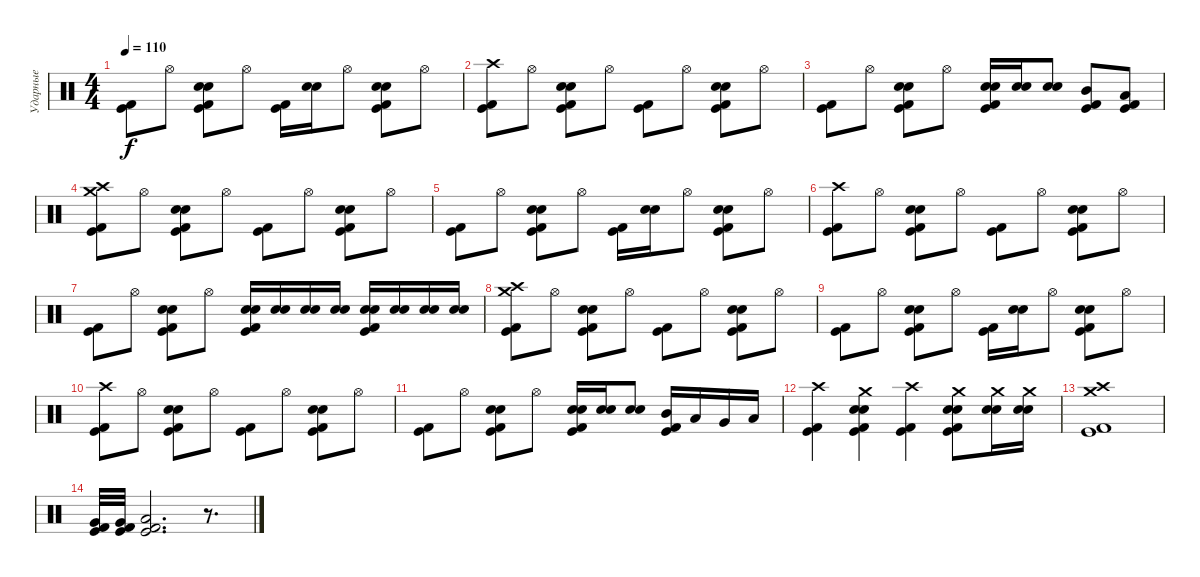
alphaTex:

\track ("Ударные" "Ударные") {instrument percussion}
\staff {score}
\articulation defaults
\ts (4 4)
\tempo 110
\clef neutral
\ks c
("Kick (hit) 2" "Kick (hit)").8{dy f} "Hi-Hat (open)".8 ("Snare (hit) 2" "Electric Snare (hit)" "Kick (hit)" "Kick (hit) 2").8 "Hi-Hat (open)".8 ("Kick (hit) 2" "Kick (hit)").16 ("Snare (hit) 2" "Electric Snare (hit)").16 "Hi-Hat (open)".8 ("Snare (hit) 2" "Electric Snare (hit)" "Kick (hit)" "Kick (hit) 2").8 "Hi-Hat (open)".8 |
("Crash high (hit)" "Kick (hit) 2" "Kick (hit)").8 "Hi-Hat (open)".8 ("Snare (hit) 2" "Electric Snare (hit)" "Kick (hit)" "Kick (hit) 2").8 "Hi-Hat (open)".8 ("Kick (hit) 2" "Kick (hit)").8 "Hi-Hat (open)".8 ("Snare (hit) 2" "Electric Snare (hit)" "Kick (hit)" "Kick (hit) 2").8 "Hi-Hat (open)".8 |
("Kick (hit) 2" "Kick (hit)").8 "Hi-Hat (open)".8 ("Snare (hit) 2" "Electric Snare (hit)" "Kick (hit)" "Kick (hit) 2").8 "Hi-Hat (open)".8 ("Snare (hit) 2" "Electric Snare (hit)" "Kick (hit)" "Kick (hit) 2").16 ("Snare (hit) 2" "Electric Snare (hit)").16 ("Snare (hit) 2" "Electric Snare (hit)").8 ("Mid Tom (hit)" "Kick (hit)" "Kick (hit) 2").8 ("Low Tom (hit)" "Kick (hit)" "Kick (hit) 2").8 |
("Crash high (hit)" "Kick (hit) 2" "Crash medium (hit)" "Kick (hit)").8 "Hi-Hat (open)".8 ("Snare (hit) 2" "Electric Snare (hit)" "Kick (hit)" "Kick (hit) 2").8 "Hi-Hat (open)".8 ("Kick (hit) 2" "Kick (hit)").8 "Hi-Hat (open)".8 ("Snare (hit) 2" "Electric Snare (hit)" "Kick (hit)" "Kick (hit) 2").8 "Hi-Hat (open)".8 |
("Kick (hit) 2" "Kick (hit)").8 "Hi-Hat (open)".8 ("Snare (hit) 2" "Electric Snare (hit)" "Kick (hit)" "Kick (hit) 2").8 "Hi-Hat (open)".8 ("Kick (hit) 2" "Kick (hit)").16 ("Snare (hit) 2" "Electric Snare (hit)").16 "Hi-Hat (open)".8 ("Snare (hit) 2" "Electric Snare (hit)" "Kick (hit)" "Kick (hit) 2").8 "Hi-Hat (open)".8 |
("Crash high (hit)" "Kick (hit) 2" "Kick (hit)").8 "Hi-Hat (open)".8 ("Snare (hit) 2" "Electric Snare (hit)" "Kick (hit)" "Kick (hit) 2").8 "Hi-Hat (open)".8 ("Kick (hit) 2" "Kick (hit)").8 "Hi-Hat (open)".8 ("Snare (hit) 2" "Electric Snare (hit)" "Kick (hit)" "Kick (hit) 2").8 "Hi-Hat (open)".8 |
("Kick (hit) 2" "Kick (hit)").8 "Hi-Hat (open)".8 ("Snare (hit) 2" "Electric Snare (hit)" "Kick (hit)" "Kick (hit) 2").8 "Hi-Hat (open)".8 ("Snare (hit) 2" "Electric Snare (hit)" "Kick (hit)" "Kick (hit) 2").16 ("Snare (hit) 2" "Electric Snare (hit)").16 ("Snare (hit) 2" "Electric Snare (hit)").16 ("Snare (hit) 2" "Electric Snare (hit)").16 ("Snare (hit) 2" "Electric Snare (hit)" "Kick (hit)" "Kick (hit) 2").16 ("Snare (hit) 2" "Electric Snare (hit)").16 ("Snare (hit) 2" "Electric Snare (hit)").16 ("Snare (hit) 2" "Electric Snare (hit)").16 |
("Crash high (hit)" "Kick (hit) 2" "Crash medium (hit)" "Kick (hit)").8 "Hi-Hat (open)".8 ("Snare (hit) 2" "Electric Snare (hit)" "Kick (hit)" "Kick (hit) 2").8 "Hi-Hat (open)".8 ("Kick (hit) 2" "Kick (hit)").8 "Hi-Hat (open)".8 ("Snare (hit) 2" "Electric Snare (hit)" "Kick (hit)" "Kick (hit) 2").8 "Hi-Hat (open)".8 |
("Kick (hit) 2" "Kick (hit)").8 "Hi-Hat (open)".8 ("Snare (hit) 2" "Electric Snare (hit)" "Kick (hit)" "Kick (hit) 2").8 "Hi-Hat (open)".8 ("Kick (hit) 2" "Kick (hit)").16 ("Snare (hit) 2" "Electric Snare (hit)").16 "Hi-Hat (open)".8 ("Snare (hit) 2" "Electric Snare (hit)" "Kick (hit)" "Kick (hit) 2").8 "Hi-Hat (open)".8 |
("Crash high (hit)" "Kick (hit) 2" "Kick (hit)").8 "Hi-Hat (open)".8 ("Snare (hit) 2" "Electric Snare (hit)" "Kick (hit)" "Kick (hit) 2").8 "Hi-Hat (open)".8 ("Kick (hit) 2" "Kick (hit)").8 "Hi-Hat (open)".8 ("Snare (hit) 2" "Electric Snare (hit)" "Kick (hit)" "Kick (hit) 2").8 "Hi-Hat (open)".8 |
("Kick (hit) 2" "Kick (hit)").8 "Hi-Hat (open)".8 ("Snare (hit) 2" "Electric Snare (hit)" "Kick (hit)" "Kick (hit) 2").8 "Hi-Hat (open)".8 ("Snare (hit) 2" "Electric Snare (hit)" "Kick (hit)" "Kick (hit) 2").16 ("Snare (hit) 2" "Electric Snare (hit)").16 ("Snare (hit) 2" "Electric Snare (hit)").8 ("Mid Tom (hit)" "Kick (hit)" "Kick (hit) 2").16 "Low Tom (hit)".16 "Very Low Tom (hit)".16 "Low Floor Tom (hit)".16 |
("Crash high (hit)" "Kick (hit) 2" "Kick (hit)").4 ("Crash medium (hit)" "Snare (hit) 2" "Electric Snare (hit)" "Kick (hit)" "Kick (hit) 2").4 ("Crash high (hit)" "Kick (hit) 2" "Kick (hit)").4 ("Crash medium (hit)" "Snare (hit) 2" "Electric Snare (hit)" "Kick (hit)" "Kick (hit) 2").8 ("Crash medium (hit)" "Snare (hit) 2" "Electric Snare (hit)").16 ("Crash medium (hit)" "Snare (hit) 2" "Electric Snare (hit)").16 |
("Crash high (hit)" "Crash medium (hit)" "Kick (hit) 2" "Kick (hit)").1 |
("Very Low Tom (hit)" "Kick (hit)" "Kick (hit) 2").32 ("Very Low Tom (hit)" "Kick (hit)" "Kick (hit) 2").32 ("Low Floor Tom (hit)" "Kick (hit)" "Kick (hit) 2").2{d} r.8{d}
